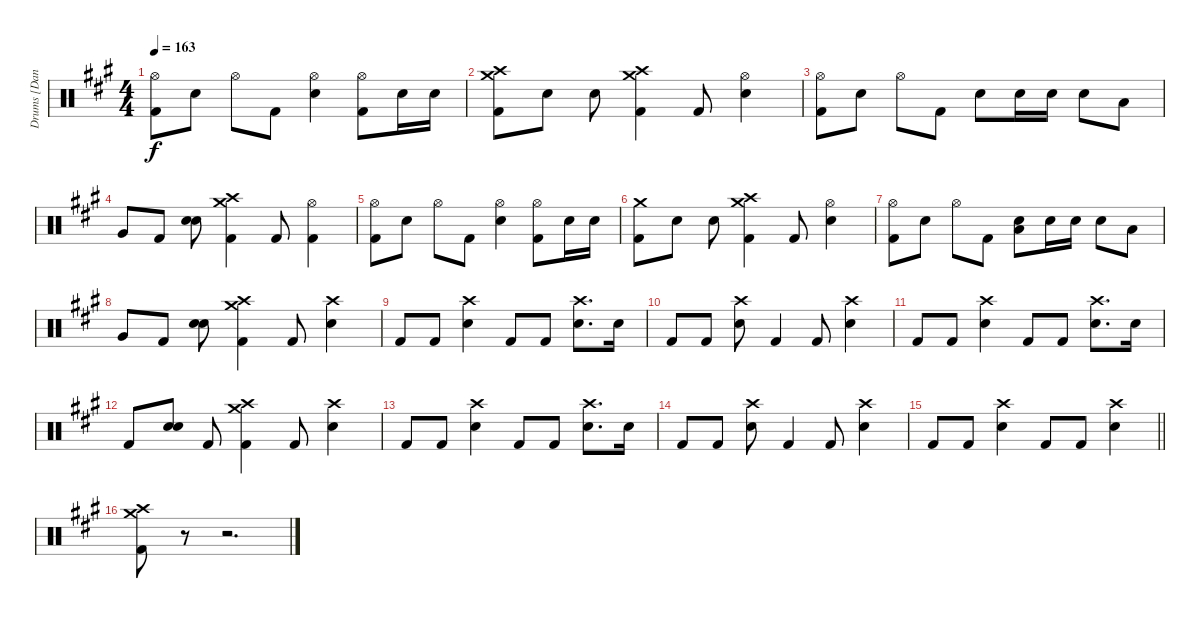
\track ("Drums [Daniel Davison]" "Drums [Dan") {instrument percussion}
\staff {score}
\articulation defaults
\ts (4 4)
\tempo 163
\clef neutral
\ks a
("Hi-Hat (open)" "Kick (hit) 2").8{dy f} "Electric Snare (hit)".8 "Hi-Hat (open)".8 "Kick (hit) 2".8 ("Hi-Hat (open)" "Electric Snare (hit)").4 ("Hi-Hat (open)" "Kick (hit) 2").8 "Electric Snare (hit)".16 "Electric Snare (hit)".16 |
("Crash medium (hit)" "Crash high (hit)" "Kick (hit) 2").8 "Electric Snare (hit)".8 "Electric Snare (hit)".8 ("Crash medium (hit)" "Crash high (hit)" "Kick (hit) 2").4 "Kick (hit) 2".8 ("Hi-Hat (open)" "Electric Snare (hit)").4 |
("Hi-Hat (open)" "Kick (hit) 2").8 "Electric Snare (hit)".8 "Hi-Hat (open)".8 "Kick (hit) 2".8 "Electric Snare (hit)".8 "Electric Snare (hit)".16 "Electric Snare (hit)".16 "Electric Snare (hit)".8 "Low Tom (hit)".8 |
"Very Low Tom (hit)".8 "Kick (hit) 2".8 ("Electric Snare (hit)" "Electric Snare (hit)").8{bu 60} ("Crash medium (hit)" "Crash high (hit)" "Kick (hit) 2").4 "Kick (hit) 2".8 ("Hi-Hat (open)" "Kick (hit) 2").4 |
("Hi-Hat (open)" "Kick (hit) 2").8 "Electric Snare (hit)".8 "Hi-Hat (open)".8 "Kick (hit) 2".8 ("Hi-Hat (open)" "Electric Snare (hit)").4 ("Hi-Hat (open)" "Kick (hit) 2").8 "Electric Snare (hit)".16 "Electric Snare (hit)".16 |
("Crash medium (hit)" "Kick (hit) 2").8 "Electric Snare (hit)".8 "Electric Snare (hit)".8 ("Crash medium (hit)" "Crash high (hit)" "Kick (hit) 2").4 "Kick (hit) 2".8 ("Hi-Hat (open)" "Electric Snare (hit)").4 |
("Hi-Hat (open)" "Kick (hit) 2").8 "Electric Snare (hit)".8 "Hi-Hat (open)".8 "Kick (hit) 2".8 ("Low Tom (hit)" "Electric Snare (hit)").8 "Electric Snare (hit)".16 "Electric Snare (hit)".16 "Electric Snare (hit)".8 "Low Tom (hit)".8 |
"Very Low Tom (hit)".8 "Kick (hit) 2".8 ("Electric Snare (hit)" "Electric Snare (hit)").8{bu 60} ("Crash medium (hit)" "Crash high (hit)" "Kick (hit) 2").4 "Kick (hit) 2".8 ("Crash high (hit)" "Electric Snare (hit)").4 |
"Kick (hit) 2".8 "Kick (hit) 2".8 ("Crash high (hit)" "Electric Snare (hit)").4 "Kick (hit) 2".8 "Kick (hit) 2".8 ("Crash high (hit)" "Electric Snare (hit)").8{d} "Electric Snare (hit)".16 |
"Kick (hit) 2".8 "Kick (hit) 2".8 ("Crash high (hit)" "Electric Snare (hit)").8 "Kick (hit) 2".4 "Kick (hit) 2".8 ("Crash high (hit)" "Electric Snare (hit)").4 |
"Kick (hit) 2".8 "Kick (hit) 2".8 ("Crash high (hit)" "Electric Snare (hit)").4 "Kick (hit) 2".8 "Kick (hit) 2".8 ("Crash high (hit)" "Electric Snare (hit)").8{d} "Electric Snare (hit)".16 |
"Kick (hit) 2".8 ("Electric Snare (hit)" "Electric Snare (hit)").8{bu 60} "Kick (hit) 2".8 ("Crash medium (hit)" "Crash high (hit)" "Kick (hit) 2").4 "Kick (hit) 2".8 ("Crash high (hit)" "Electric Snare (hit)").4 |
"Kick (hit) 2".8 "Kick (hit) 2".8 ("Crash high (hit)" "Electric Snare (hit)").4 "Kick (hit) 2".8 "Kick (hit) 2".8 ("Crash high (hit)" "Electric Snare (hit)").8{d} "Electric Snare (hit)".16 |
"Kick (hit) 2".8 "Kick (hit) 2".8 ("Crash high (hit)" "Electric Snare (hit)").8 "Kick (hit) 2".4 "Kick (hit) 2".8 ("Crash high (hit)" "Electric Snare (hit)").4 |
\barLineRight lightlight "Kick (hit) 2".8 "Kick (hit) 2".8
("Crash high (hit)" "Electric Snare (hit)").4 "Kick (hit) 2".8 "Kick (hit) 2".8 ("Crash high (hit)" "Electric Snare (hit)").4 |
\section ("" "")
("Crash medium (hit)" "Crash high (hit)" "Kick (hit) 2").8 r.8{volume 0} r.2{d}
